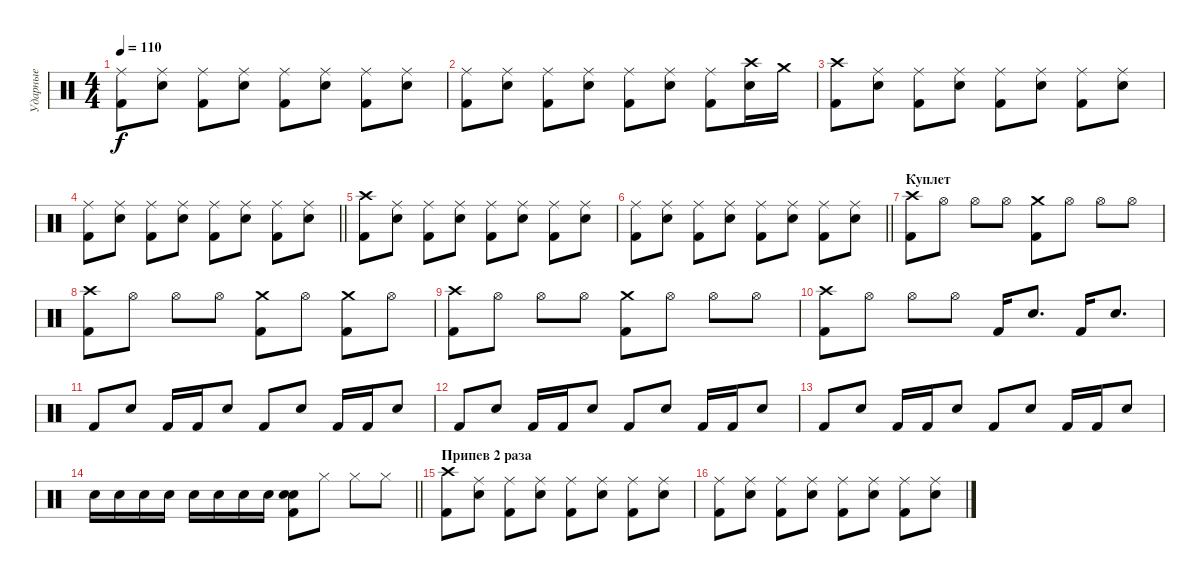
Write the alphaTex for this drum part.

\track ("Ударные" "Ударные") {instrument percussion}
\staff {score}
\articulation defaults
\ts (4 4)
\tempo 110
\clef neutral
\ks c
("Ride (middle)" "Kick (hit) 2").8{dy f} ("Ride (middle)" "Electric Snare (hit)").8 ("Ride (middle)" "Kick (hit) 2").8 ("Ride (middle)" "Electric Snare (hit)").8 ("Ride (middle)" "Kick (hit) 2").8 ("Ride (middle)" "Electric Snare (hit)").8 ("Ride (middle)" "Kick (hit) 2").8 ("Ride (middle)" "Electric Snare (hit)").8 |
("Ride (middle)" "Kick (hit) 2").8 ("Ride (middle)" "Electric Snare (hit)").8 ("Ride (middle)" "Kick (hit) 2").8 ("Ride (middle)" "Electric Snare (hit)").8 ("Ride (middle)" "Kick (hit) 2").8 ("Ride (middle)" "Electric Snare (hit)").8 ("Ride (middle)" "Kick (hit) 2").8 ("Crash high (hit)" "Electric Snare (hit)").16 "Crash medium (hit)".16 |
("Crash high (hit)" "Kick (hit) 2").8 ("Ride (middle)" "Electric Snare (hit)").8 ("Ride (middle)" "Kick (hit) 2").8 ("Ride (middle)" "Electric Snare (hit)").8 ("Ride (middle)" "Kick (hit) 2").8 ("Ride (middle)" "Electric Snare (hit)").8 ("Ride (middle)" "Kick (hit) 2").8 ("Ride (middle)" "Electric Snare (hit)").8 |
\barLineRight lightlight
("Ride (middle)" "Kick (hit) 2").8 ("Ride (middle)" "Electric Snare (hit)").8 ("Ride (middle)" "Kick (hit) 2").8 ("Ride (middle)" "Electric Snare (hit)").8 ("Ride (middle)" "Kick (hit) 2").8 ("Ride (middle)" "Electric Snare (hit)").8 ("Ride (middle)" "Kick (hit) 2").8 ("Ride (middle)" "Electric Snare (hit)").8 |
("Crash high (hit)" "Kick (hit) 2").8 ("Ride (middle)" "Electric Snare (hit)").8 ("Ride (middle)" "Kick (hit) 2").8 ("Ride (middle)" "Electric Snare (hit)").8 ("Ride (middle)" "Kick (hit) 2").8 ("Ride (middle)" "Electric Snare (hit)").8 ("Ride (middle)" "Kick (hit) 2").8 ("Ride (middle)" "Electric Snare (hit)").8 |
\barLineRight lightlight
("Ride (middle)" "Kick (hit) 2").8 ("Ride (middle)" "Electric Snare (hit)").8 ("Ride (middle)" "Kick (hit) 2").8 ("Ride (middle)" "Electric Snare (hit)").8 ("Ride (middle)" "Kick (hit) 2").8 ("Ride (middle)" "Electric Snare (hit)").8 ("Ride (middle)" "Kick (hit) 2").8 ("Ride (middle)" "Electric Snare (hit)").8 |
\section ("" "Куплет")
("Crash high (hit)" "Kick (hit) 2").8 "Hi-Hat (open)".8 "Hi-Hat (open)".8 "Hi-Hat (open)".8 ("Crash medium (hit)" "Kick (hit) 2").8 "Hi-Hat (open)".8 "Hi-Hat (open)".8 "Hi-Hat (open)".8 |
("Crash high (hit)" "Kick (hit) 2").8 "Hi-Hat (open)".8 "Hi-Hat (open)".8 "Hi-Hat (open)".8 ("Crash medium (hit)" "Kick (hit) 2").8 "Hi-Hat (open)".8 ("Crash medium (hit)" "Kick (hit) 2").8 "Hi-Hat (open)".8 |
("Crash high (hit)" "Kick (hit) 2").8 "Hi-Hat (open)".8 "Hi-Hat (open)".8 "Hi-Hat (open)".8 ("Crash medium (hit)" "Kick (hit) 2").8 "Hi-Hat (open)".8 "Hi-Hat (open)".8 "Hi-Hat (open)".8 |
("Crash high (hit)" "Kick (hit) 2").8 "Hi-Hat (open)".8 "Hi-Hat (open)".8 "Hi-Hat (open)".8 "Kick (hit) 2".16 "Electric Snare (hit)".8{d} "Kick (hit) 2".16 "Electric Snare (hit)".8{d} |
"Kick (hit) 2".8 "Electric Snare (hit)".8 "Kick (hit) 2".16 "Kick (hit) 2".16 "Electric Snare (hit)".8 "Kick (hit) 2".8 "Electric Snare (hit)".8 "Kick (hit) 2".16 "Kick (hit) 2".16 "Electric Snare (hit)".8 |
"Kick (hit) 2".8 "Electric Snare (hit)".8 "Kick (hit) 2".16 "Kick (hit) 2".16 "Electric Snare (hit)".8 "Kick (hit) 2".8 "Electric Snare (hit)".8 "Kick (hit) 2".16 "Kick (hit) 2".16 "Electric Snare (hit)".8 |
"Kick (hit) 2".8 "Electric Snare (hit)".8 "Kick (hit) 2".16 "Kick (hit) 2".16 "Electric Snare (hit)".8 "Kick (hit) 2".8 "Electric Snare (hit)".8 "Kick (hit) 2".16 "Kick (hit) 2".16 "Electric Snare (hit)".8 |
\barLineRight lightlight "Electric Snare (hit)".16 "Electric Snare (hit)".16 "Electric Snare (hit)".16 "Electric Snare (hit)".16 "Electric Snare (hit)".16 "Electric Snare (hit)".16 "Electric Snare (hit)".16 "Electric Snare (hit)".16
("Electric Snare (hit)" "Electric Snare (hit)" "Kick (hit) 2").8 "Hi-Hat (closed)".8 "Hi-Hat (closed)".8 "Hi-Hat (closed)".8 |
\section ("" "Припев 2 раза")
("Crash high (hit)" "Kick (hit) 2").8 ("Ride (middle)" "Electric Snare (hit)").8 ("Ride (middle)" "Kick (hit) 2").8 ("Ride (middle)" "Electric Snare (hit)").8 ("Ride (middle)" "Kick (hit) 2").8 ("Ride (middle)" "Electric Snare (hit)").8 ("Ride (middle)" "Kick (hit) 2").8 ("Ride (middle)" "Electric Snare (hit)").8 |
("Ride (middle)" "Kick (hit) 2").8 ("Ride (middle)" "Electric Snare (hit)").8 ("Ride (middle)" "Kick (hit) 2").8 ("Ride (middle)" "Electric Snare (hit)").8 ("Ride (middle)" "Kick (hit) 2").8 ("Ride (middle)" "Electric Snare (hit)").8 ("Ride (middle)" "Kick (hit) 2").8 ("Ride (middle)" "Electric Snare (hit)").8
